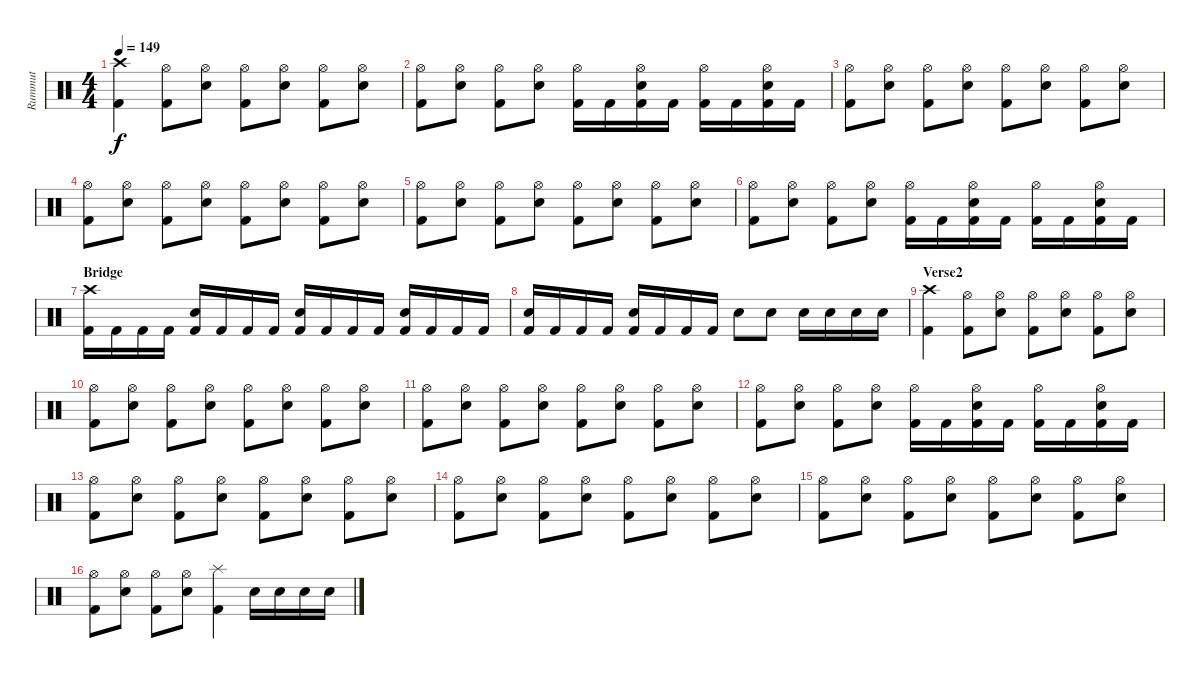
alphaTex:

\track ("Rummut" "Rummut") {instrument percussion}
\staff {score}
\articulation defaults
\ts (4 4)
\tempo 149
\clef neutral
\ks c
("Crash high (hit)" "Kick (hit) 2").4{dy f} ("Hi-Hat (open)" "Kick (hit) 2").8 ("Hi-Hat (open)" "Electric Snare (hit)").8 ("Hi-Hat (open)" "Kick (hit) 2").8 ("Hi-Hat (open)" "Electric Snare (hit)").8 ("Hi-Hat (open)" "Kick (hit) 2").8 ("Hi-Hat (open)" "Electric Snare (hit)").8 |
("Hi-Hat (open)" "Kick (hit) 2").8 ("Hi-Hat (open)" "Electric Snare (hit)").8 ("Hi-Hat (open)" "Kick (hit) 2").8 ("Hi-Hat (open)" "Electric Snare (hit)").8 ("Hi-Hat (open)" "Kick (hit) 2").16 "Kick (hit) 2".16 ("Hi-Hat (open)" "Electric Snare (hit)" "Kick (hit) 2").16 "Kick (hit) 2".16 ("Hi-Hat (open)" "Kick (hit) 2").16 "Kick (hit) 2".16 ("Hi-Hat (open)" "Electric Snare (hit)" "Kick (hit) 2").16 "Kick (hit) 2".16 |
("Hi-Hat (open)" "Kick (hit) 2").8 ("Hi-Hat (open)" "Electric Snare (hit)").8 ("Hi-Hat (open)" "Kick (hit) 2").8 ("Hi-Hat (open)" "Electric Snare (hit)").8 ("Hi-Hat (open)" "Kick (hit) 2").8 ("Hi-Hat (open)" "Electric Snare (hit)").8 ("Hi-Hat (open)" "Kick (hit) 2").8 ("Hi-Hat (open)" "Electric Snare (hit)").8 |
("Hi-Hat (open)" "Kick (hit) 2").8 ("Hi-Hat (open)" "Electric Snare (hit)").8 ("Hi-Hat (open)" "Kick (hit) 2").8 ("Hi-Hat (open)" "Electric Snare (hit)").8 ("Hi-Hat (open)" "Kick (hit) 2").8 ("Hi-Hat (open)" "Electric Snare (hit)").8 ("Hi-Hat (open)" "Kick (hit) 2").8 ("Hi-Hat (open)" "Electric Snare (hit)").8 |
("Hi-Hat (open)" "Kick (hit) 2").8 ("Hi-Hat (open)" "Electric Snare (hit)").8 ("Hi-Hat (open)" "Kick (hit) 2").8 ("Hi-Hat (open)" "Electric Snare (hit)").8 ("Hi-Hat (open)" "Kick (hit) 2").8 ("Hi-Hat (open)" "Electric Snare (hit)").8 ("Hi-Hat (open)" "Kick (hit) 2").8 ("Hi-Hat (open)" "Electric Snare (hit)").8 |
("Hi-Hat (open)" "Kick (hit) 2").8 ("Hi-Hat (open)" "Electric Snare (hit)").8 ("Hi-Hat (open)" "Kick (hit) 2").8 ("Hi-Hat (open)" "Electric Snare (hit)").8 ("Hi-Hat (open)" "Kick (hit) 2").16 "Kick (hit) 2".16 ("Hi-Hat (open)" "Electric Snare (hit)" "Kick (hit) 2").16 "Kick (hit) 2".16 ("Hi-Hat (open)" "Kick (hit) 2").16 "Kick (hit) 2".16 ("Hi-Hat (open)" "Electric Snare (hit)" "Kick (hit) 2").16 "Kick (hit) 2".16 |
\section ("" "Bridge")
("Crash high (hit)" "Kick (hit) 2").16 "Kick (hit) 2".16 "Kick (hit) 2".16 "Kick (hit) 2".16 ("Electric Snare (hit)" "Kick (hit) 2").16 "Kick (hit) 2".16 "Kick (hit) 2".16 "Kick (hit) 2".16 ("Electric Snare (hit)" "Kick (hit) 2").16 "Kick (hit) 2".16 "Kick (hit) 2".16 "Kick (hit) 2".16 ("Electric Snare (hit)" "Kick (hit) 2").16 "Kick (hit) 2".16 "Kick (hit) 2".16 "Kick (hit) 2".16 |
("Electric Snare (hit)" "Kick (hit) 2").16 "Kick (hit) 2".16 "Kick (hit) 2".16 "Kick (hit) 2".16 ("Electric Snare (hit)" "Kick (hit) 2").16 "Kick (hit) 2".16 "Kick (hit) 2".16 "Kick (hit) 2".16 "Electric Snare (hit)".8 "Electric Snare (hit)".8 "Electric Snare (hit)".16 "Electric Snare (hit)".16 "Electric Snare (hit)".16 "Electric Snare (hit)".16 |
\section ("" "Verse2")
("Crash high (hit)" "Kick (hit) 2").4 ("Hi-Hat (open)" "Kick (hit) 2").8 ("Hi-Hat (open)" "Electric Snare (hit)").8 ("Hi-Hat (open)" "Kick (hit) 2").8 ("Hi-Hat (open)" "Electric Snare (hit)").8 ("Hi-Hat (open)" "Kick (hit) 2").8 ("Hi-Hat (open)" "Electric Snare (hit)").8 |
("Hi-Hat (open)" "Kick (hit) 2").8 ("Hi-Hat (open)" "Electric Snare (hit)").8 ("Hi-Hat (open)" "Kick (hit) 2").8 ("Hi-Hat (open)" "Electric Snare (hit)").8 ("Hi-Hat (open)" "Kick (hit) 2").8 ("Hi-Hat (open)" "Electric Snare (hit)").8 ("Hi-Hat (open)" "Kick (hit) 2").8 ("Hi-Hat (open)" "Electric Snare (hit)").8 |
("Hi-Hat (open)" "Kick (hit) 2").8 ("Hi-Hat (open)" "Electric Snare (hit)").8 ("Hi-Hat (open)" "Kick (hit) 2").8 ("Hi-Hat (open)" "Electric Snare (hit)").8 ("Hi-Hat (open)" "Kick (hit) 2").8 ("Hi-Hat (open)" "Electric Snare (hit)").8 ("Hi-Hat (open)" "Kick (hit) 2").8 ("Hi-Hat (open)" "Electric Snare (hit)").8 |
("Hi-Hat (open)" "Kick (hit) 2").8 ("Hi-Hat (open)" "Electric Snare (hit)").8 ("Hi-Hat (open)" "Kick (hit) 2").8 ("Hi-Hat (open)" "Electric Snare (hit)").8 ("Hi-Hat (open)" "Kick (hit) 2").16 "Kick (hit) 2".16 ("Hi-Hat (open)" "Electric Snare (hit)" "Kick (hit) 2").16 "Kick (hit) 2".16 ("Hi-Hat (open)" "Kick (hit) 2").16 "Kick (hit) 2".16 ("Hi-Hat (open)" "Electric Snare (hit)" "Kick (hit) 2").16 "Kick (hit) 2".16 |
("Hi-Hat (open)" "Kick (hit) 2").8 ("Hi-Hat (open)" "Electric Snare (hit)").8 ("Hi-Hat (open)" "Kick (hit) 2").8 ("Hi-Hat (open)" "Electric Snare (hit)").8 ("Hi-Hat (open)" "Kick (hit) 2").8 ("Hi-Hat (open)" "Electric Snare (hit)").8 ("Hi-Hat (open)" "Kick (hit) 2").8 ("Hi-Hat (open)" "Electric Snare (hit)").8 |
("Hi-Hat (open)" "Kick (hit) 2").8 ("Hi-Hat (open)" "Electric Snare (hit)").8 ("Hi-Hat (open)" "Kick (hit) 2").8 ("Hi-Hat (open)" "Electric Snare (hit)").8 ("Hi-Hat (open)" "Kick (hit) 2").8 ("Hi-Hat (open)" "Electric Snare (hit)").8 ("Hi-Hat (open)" "Kick (hit) 2").8 ("Hi-Hat (open)" "Electric Snare (hit)").8 |
("Hi-Hat (open)" "Kick (hit) 2").8 ("Hi-Hat (open)" "Electric Snare (hit)").8 ("Hi-Hat (open)" "Kick (hit) 2").8 ("Hi-Hat (open)" "Electric Snare (hit)").8 ("Hi-Hat (open)" "Kick (hit) 2").8 ("Hi-Hat (open)" "Electric Snare (hit)").8 ("Hi-Hat (open)" "Kick (hit) 2").8 ("Hi-Hat (open)" "Electric Snare (hit)").8 |
("Hi-Hat (open)" "Kick (hit) 2").8 ("Hi-Hat (open)" "Electric Snare (hit)").8 ("Hi-Hat (open)" "Kick (hit) 2").8 ("Hi-Hat (open)" "Electric Snare (hit)").8 ("Splash (hit)" "Kick (hit) 2").4 "Electric Snare (hit)".16 "Electric Snare (hit)".16 "Electric Snare (hit)".16 "Electric Snare (hit)".16
